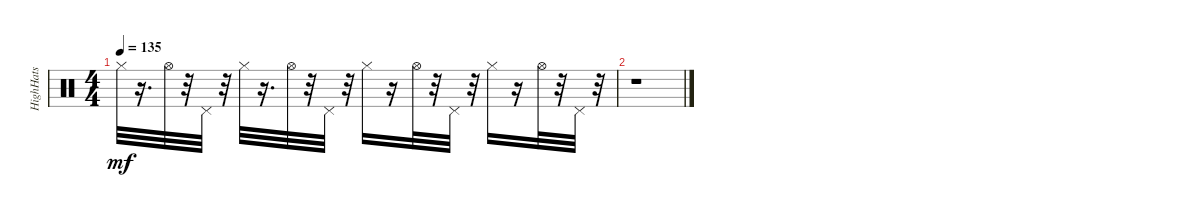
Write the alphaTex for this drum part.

\track ("HighHats" "HighHats") {instrument percussion}
\staff {score}
\articulation defaults
\ts (4 4)
\tempo 135
\clef neutral
\ks c "Hi-Hat (closed)".32{dy mf}
r.16{d} "Hi-Hat (open)".32 r.32 "Pedal Hi-Hat (hit)".32 r.32 "Hi-Hat (closed)".32 r.16{d} "Hi-Hat (open)".32 r.32 "Pedal Hi-Hat (hit)".32 r.32 "Hi-Hat (closed)".16 r.16 "Hi-Hat (open)".32 r.32 "Pedal Hi-Hat (hit)".32 r.32 "Hi-Hat (closed)".16 r.16 "Hi-Hat (open)".32 r.32 "Pedal Hi-Hat (hit)".32 r.32 |
r.1
